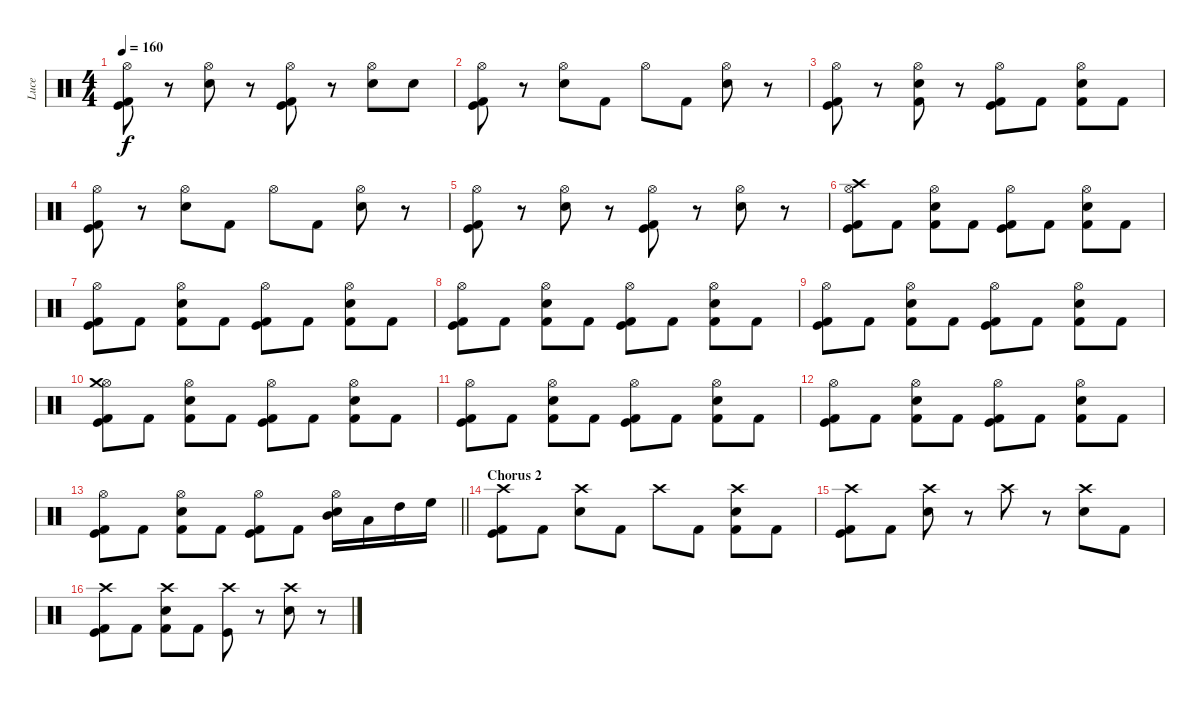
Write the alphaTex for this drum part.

\track ("Luce" "Luce") {instrument percussion}
\staff {score}
\articulation defaults
\ts (4 4)
\tempo 160
\clef neutral
\ks c
("Hi-Hat (open)" "Kick (hit) 2" "Kick (hit)").8{dy f} r.8 ("Hi-Hat (open)" "Snare (hit) 2").8 r.8 ("Hi-Hat (open)" "Kick (hit) 2" "Kick (hit)").8 r.8 ("Hi-Hat (open)" "Snare (hit) 2").8 "Snare (hit) 2".8 |
("Hi-Hat (open)" "Kick (hit) 2" "Kick (hit)").8 r.8 ("Hi-Hat (open)" "Snare (hit) 2").8 "Kick (hit) 2".8 "Hi-Hat (open)".8 "Kick (hit) 2".8 ("Hi-Hat (open)" "Snare (hit) 2").8 r.8 |
("Hi-Hat (open)" "Kick (hit) 2" "Kick (hit)").8 r.8 ("Hi-Hat (open)" "Kick (hit) 2" "Snare (hit) 2").8 r.8 ("Hi-Hat (open)" "Kick (hit) 2" "Kick (hit)").8 "Kick (hit) 2".8 ("Hi-Hat (open)" "Kick (hit) 2" "Snare (hit) 2").8 "Kick (hit) 2".8 |
("Hi-Hat (open)" "Kick (hit) 2" "Kick (hit)").8 r.8 ("Hi-Hat (open)" "Snare (hit) 2").8 "Kick (hit) 2".8 "Hi-Hat (open)".8 "Kick (hit) 2".8 ("Hi-Hat (open)" "Snare (hit) 2").8 r.8 |
("Hi-Hat (open)" "Kick (hit) 2" "Kick (hit)").8 r.8 ("Hi-Hat (open)" "Snare (hit) 2").8 r.8 ("Hi-Hat (open)" "Kick (hit) 2" "Kick (hit)").8 r.8 ("Hi-Hat (open)" "Snare (hit) 2").8 r.8 |
("Hi-Hat (open)" "Kick (hit) 2" "Crash high (hit)" "Kick (hit)").8 "Kick (hit) 2".8 ("Hi-Hat (open)" "Kick (hit) 2" "Snare (hit) 2").8 "Kick (hit) 2".8 ("Hi-Hat (open)" "Kick (hit) 2" "Kick (hit)").8 "Kick (hit) 2".8 ("Hi-Hat (open)" "Kick (hit) 2" "Snare (hit) 2").8 "Kick (hit) 2".8 |
("Hi-Hat (open)" "Kick (hit) 2" "Kick (hit)").8 "Kick (hit) 2".8 ("Hi-Hat (open)" "Kick (hit) 2" "Snare (hit) 2").8 "Kick (hit) 2".8 ("Hi-Hat (open)" "Kick (hit) 2" "Kick (hit)").8 "Kick (hit) 2".8 ("Hi-Hat (open)" "Kick (hit) 2" "Snare (hit) 2").8 "Kick (hit) 2".8 |
("Hi-Hat (open)" "Kick (hit) 2" "Kick (hit)").8 "Kick (hit) 2".8 ("Hi-Hat (open)" "Kick (hit) 2" "Snare (hit) 2").8 "Kick (hit) 2".8 ("Hi-Hat (open)" "Kick (hit) 2" "Kick (hit)").8 "Kick (hit) 2".8 ("Hi-Hat (open)" "Kick (hit) 2" "Snare (hit) 2").8 "Kick (hit) 2".8 |
("Hi-Hat (open)" "Kick (hit) 2" "Kick (hit)").8 "Kick (hit) 2".8 ("Hi-Hat (open)" "Kick (hit) 2" "Snare (hit) 2").8 "Kick (hit) 2".8 ("Hi-Hat (open)" "Kick (hit) 2" "Kick (hit)").8 "Kick (hit) 2".8 ("Hi-Hat (open)" "Kick (hit) 2" "Snare (hit) 2").8 "Kick (hit) 2".8 |
("Hi-Hat (open)" "Kick (hit) 2" "Crash medium (hit)" "Kick (hit)").8 "Kick (hit) 2".8 ("Hi-Hat (open)" "Kick (hit) 2" "Snare (hit) 2").8 "Kick (hit) 2".8 ("Hi-Hat (open)" "Kick (hit) 2" "Kick (hit)").8 "Kick (hit) 2".8 ("Hi-Hat (open)" "Kick (hit) 2" "Snare (hit) 2").8 "Kick (hit) 2".8 |
("Hi-Hat (open)" "Kick (hit) 2" "Kick (hit)").8 "Kick (hit) 2".8 ("Hi-Hat (open)" "Kick (hit) 2" "Snare (hit) 2").8 "Kick (hit) 2".8 ("Hi-Hat (open)" "Kick (hit) 2" "Kick (hit)").8 "Kick (hit) 2".8 ("Hi-Hat (open)" "Kick (hit) 2" "Snare (hit) 2").8 "Kick (hit) 2".8 |
("Hi-Hat (open)" "Kick (hit) 2" "Kick (hit)").8 "Kick (hit) 2".8 ("Hi-Hat (open)" "Kick (hit) 2" "Snare (hit) 2").8 "Kick (hit) 2".8 ("Hi-Hat (open)" "Kick (hit) 2" "Kick (hit)").8 "Kick (hit) 2".8 ("Hi-Hat (open)" "Kick (hit) 2" "Snare (hit) 2").8 "Kick (hit) 2".8 |
\barLineRight lightlight
("Hi-Hat (open)" "Kick (hit) 2" "Kick (hit)").8 "Kick (hit) 2".8 ("Hi-Hat (open)" "Kick (hit) 2" "Snare (hit) 2").8 "Kick (hit) 2".8 ("Hi-Hat (open)" "Kick (hit) 2" "Kick (hit)").8 "Kick (hit) 2".8 ("Hi-Hat (open)" "Mid Tom (hit)" "Snare (hit) 2").16 "Low Tom (hit)".16 "High Tom (hit)".16 "High Floor Tom (hit)".16 |
\section ("" "Chorus 2")
("Crash high (hit)" "Kick (hit) 2" "Kick (hit)").8 "Kick (hit) 2".8 ("Crash high (hit)" "Snare (hit) 2").8 "Kick (hit) 2".8 "Crash high (hit)".8 "Kick (hit) 2".8 ("Crash high (hit)" "Kick (hit) 2" "Snare (hit) 2").8 "Kick (hit) 2".8 |
("Crash high (hit)" "Kick (hit) 2" "Kick (hit)").8 "Kick (hit) 2".8 ("Crash high (hit)" "Snare (hit) 2").8 r.8 "Crash high (hit)".8 r.8 ("Crash high (hit)" "Snare (hit) 2").8 "Kick (hit) 2".8 |
("Crash high (hit)" "Kick (hit) 2" "Kick (hit)").8 "Kick (hit) 2".8 ("Crash high (hit)" "Kick (hit) 2" "Snare (hit) 2").8 "Kick (hit) 2".8 ("Crash high (hit)" "Kick (hit)").8 r.8 ("Crash high (hit)" "Snare (hit) 2").8 r.8
